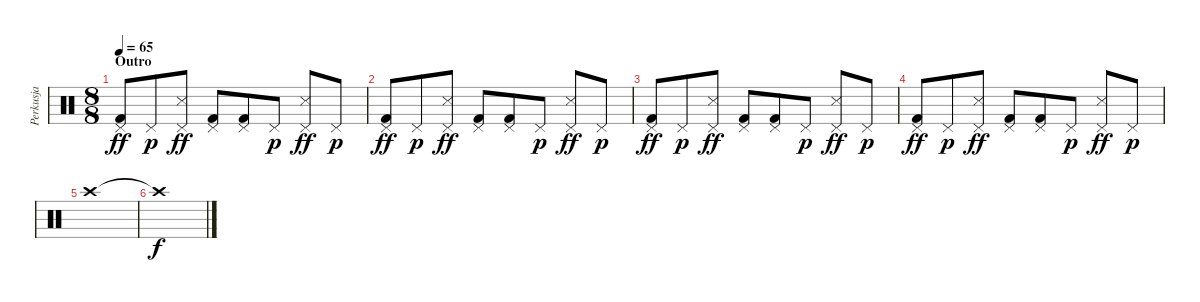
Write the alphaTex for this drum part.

\track ("Perkusja" "Perkusja") {solo instrument percussion}
\staff {score}
\articulation defaults
\ts (8 8)
\section ("" "Outro")
\tempo 65
\clef neutral
\ks c
("Pedal Hi-Hat (hit)" "Kick (hit) 2").8{dy ff} "Pedal Hi-Hat (hit)".8{dy p} ("Pedal Hi-Hat (hit)" "Snare (side stick) 3").8{dy ff} ("Pedal Hi-Hat (hit)" "Kick (hit) 2").8 ("Pedal Hi-Hat (hit)" "Kick (hit) 2").8 "Pedal Hi-Hat (hit)".8{dy p} ("Pedal Hi-Hat (hit)" "Snare (side stick) 3").8{dy ff} "Pedal Hi-Hat (hit)".8{dy p} |
("Pedal Hi-Hat (hit)" "Kick (hit) 2").8{dy ff} "Pedal Hi-Hat (hit)".8{dy p} ("Pedal Hi-Hat (hit)" "Snare (side stick) 3").8{dy ff} ("Pedal Hi-Hat (hit)" "Kick (hit) 2").8 ("Pedal Hi-Hat (hit)" "Kick (hit) 2").8 "Pedal Hi-Hat (hit)".8{dy p} ("Pedal Hi-Hat (hit)" "Snare (side stick) 3").8{dy ff} "Pedal Hi-Hat (hit)".8{dy p} |
("Pedal Hi-Hat (hit)" "Kick (hit) 2").8{dy ff} "Pedal Hi-Hat (hit)".8{dy p} ("Pedal Hi-Hat (hit)" "Snare (side stick) 3").8{dy ff} ("Pedal Hi-Hat (hit)" "Kick (hit) 2").8 ("Pedal Hi-Hat (hit)" "Kick (hit) 2").8 "Pedal Hi-Hat (hit)".8{dy p} ("Pedal Hi-Hat (hit)" "Snare (side stick) 3").8{dy ff} "Pedal Hi-Hat (hit)".8{dy p} |
("Pedal Hi-Hat (hit)" "Kick (hit) 2").8{dy ff} "Pedal Hi-Hat (hit)".8{dy p} ("Pedal Hi-Hat (hit)" "Snare (side stick) 3").8{dy ff} ("Pedal Hi-Hat (hit)" "Kick (hit) 2").8 ("Pedal Hi-Hat (hit)" "Kick (hit) 2").8 "Pedal Hi-Hat (hit)".8{dy p} ("Pedal Hi-Hat (hit)" "Snare (side stick) 3").8{dy ff} "Pedal Hi-Hat (hit)".8{dy p} |
"Crash high (hit)".1 |
"Crash high (hit)"{t}.1{dy f}
